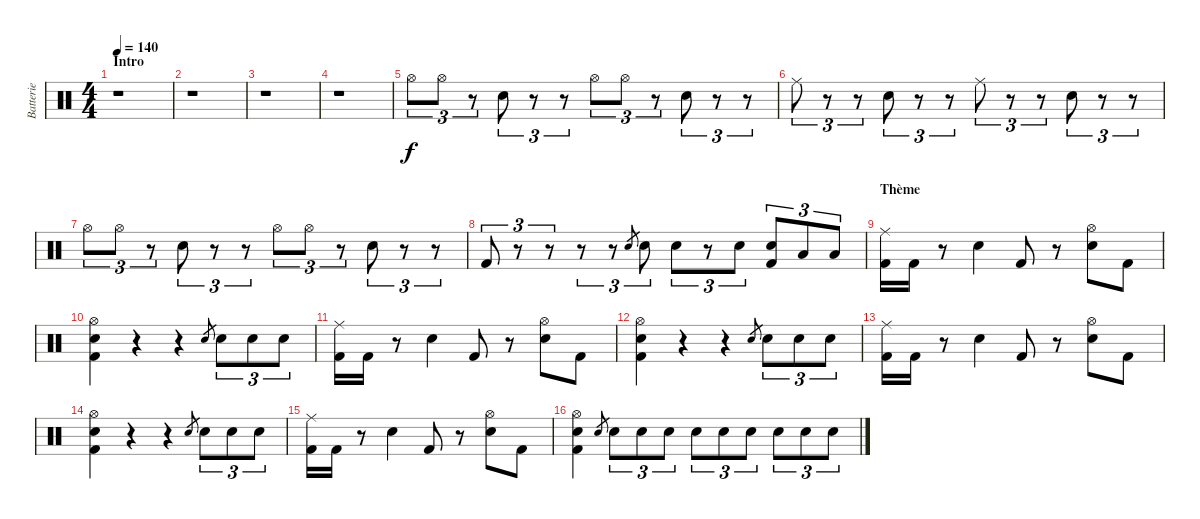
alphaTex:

\track ("Batterie" "Batterie") {instrument percussion}
\staff {score}
\articulation defaults
\ts (4 4)
\section ("" "Intro")
\tempo 140
\clef neutral
\ks c
r.1{dy f} |
r.1 |
r.1 |
r.1 |
"Hi-Hat (open)".8{tu (3 2)} "Hi-Hat (open)".8{tu (3 2)} r.8{tu (3 2)} "Electric Snare (hit)".8{tu (3 2)} r.8{tu (3 2)} r.8{tu (3 2)} "Hi-Hat (open)".8{tu (3 2)} "Hi-Hat (open)".8{tu (3 2)} r.8{tu (3 2)} "Electric Snare (hit)".8{tu (3 2)} r.8{tu (3 2)} r.8{tu (3 2)} |
"Ride (middle)".8{tu (3 2)} r.8{tu (3 2)} r.8{tu (3 2)} "Electric Snare (hit)".8{tu (3 2)} r.8{tu (3 2)} r.8{tu (3 2)} "Ride (middle)".8{tu (3 2)} r.8{tu (3 2)} r.8{tu (3 2)} "Electric Snare (hit)".8{tu (3 2)} r.8{tu (3 2)} r.8{tu (3 2)} |
"Hi-Hat (open)".8{tu (3 2)} "Hi-Hat (open)".8{tu (3 2)} r.8{tu (3 2)} "Electric Snare (hit)".8{tu (3 2)} r.8{tu (3 2)} r.8{tu (3 2)} "Hi-Hat (open)".8{tu (3 2)} "Hi-Hat (open)".8{tu (3 2)} r.8{tu (3 2)} "Electric Snare (hit)".8{tu (3 2)} r.8{tu (3 2)} r.8{tu (3 2)} |
"Kick (hit) 2".8{tu (3 2)} r.8{tu (3 2)} r.8{tu (3 2)} r.8{tu (3 2)} r.8{tu (3 2)} "Electric Snare (hit)".8{gr} "Electric Snare (hit)".8{tu (3 2)} "Electric Snare (hit)".8{tu (3 2)} r.8{tu (3 2)} "Electric Snare (hit)".8{tu (3 2)} ("Electric Snare (hit)" "Kick (hit) 2").8{tu (3 2)} "Low Floor Tom (hit)".8{tu (3 2)} "Low Floor Tom (hit)".8{tu (3 2)} |
\section ("" "Thème")
("Ride (middle)" "Kick (hit) 2").16 "Kick (hit) 2".16 r.8 "Electric Snare (hit)".4 "Kick (hit) 2".8 r.8 ("Hi-Hat (open)" "Electric Snare (hit)").8 "Kick (hit) 2".8 |
("Hi-Hat (open)" "Electric Snare (hit)" "Kick (hit) 2").4 r.4 r.4 "Electric Snare (hit)".8{gr} "Electric Snare (hit)".8{tu (3 2)} "Electric Snare (hit)".8{tu (3 2)} "Electric Snare (hit)".8{tu (3 2)} |
("Ride (middle)" "Kick (hit) 2").16 "Kick (hit) 2".16 r.8 "Electric Snare (hit)".4 "Kick (hit) 2".8 r.8 ("Hi-Hat (open)" "Electric Snare (hit)").8 "Kick (hit) 2".8 |
("Hi-Hat (open)" "Electric Snare (hit)" "Kick (hit) 2").4 r.4 r.4 "Electric Snare (hit)".8{gr} "Electric Snare (hit)".8{tu (3 2)} "Electric Snare (hit)".8{tu (3 2)} "Electric Snare (hit)".8{tu (3 2)} |
("Ride (middle)" "Kick (hit) 2").16 "Kick (hit) 2".16 r.8 "Electric Snare (hit)".4 "Kick (hit) 2".8 r.8 ("Hi-Hat (open)" "Electric Snare (hit)").8 "Kick (hit) 2".8 |
("Hi-Hat (open)" "Electric Snare (hit)" "Kick (hit) 2").4 r.4 r.4 "Electric Snare (hit)".8{gr} "Electric Snare (hit)".8{tu (3 2)} "Electric Snare (hit)".8{tu (3 2)} "Electric Snare (hit)".8{tu (3 2)} |
("Ride (middle)" "Kick (hit) 2").16 "Kick (hit) 2".16 r.8 "Electric Snare (hit)".4 "Kick (hit) 2".8 r.8 ("Hi-Hat (open)" "Electric Snare (hit)").8 "Kick (hit) 2".8 |
("Hi-Hat (open)" "Electric Snare (hit)" "Kick (hit) 2").4 "Electric Snare (hit)".8{gr} "Electric Snare (hit)".8{tu (3 2)} "Electric Snare (hit)".8{tu (3 2)} "Electric Snare (hit)".8{tu (3 2)} "Electric Snare (hit)".8{tu (3 2)} "Electric Snare (hit)".8{tu (3 2)} "Electric Snare (hit)".8{tu (3 2)} "Electric Snare (hit)".8{tu (3 2)} "Electric Snare (hit)".8{tu (3 2)} "Electric Snare (hit)".8{tu (3 2)}
